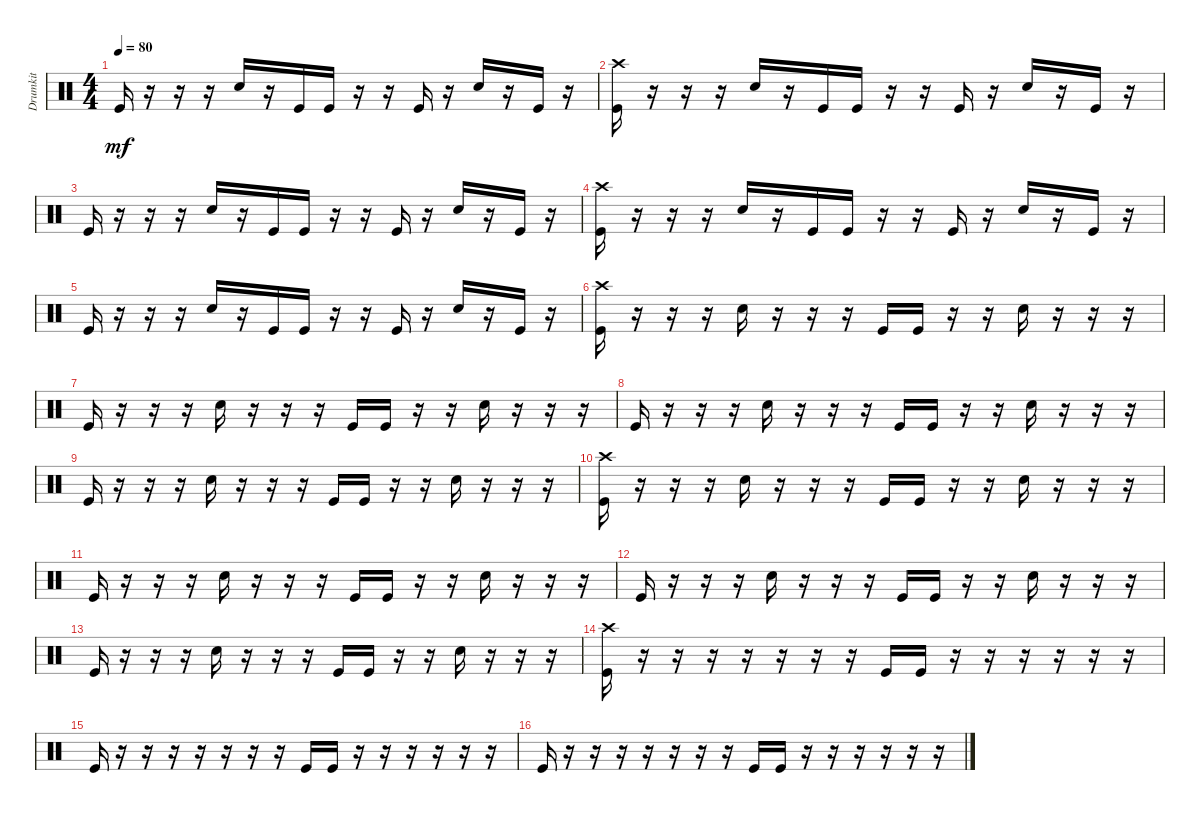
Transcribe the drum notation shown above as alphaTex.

\track ("Drumkit" "Drumkit") {instrument percussion}
\staff {score}
\articulation defaults
\ts (4 4)
\tempo 80
\clef neutral
\ks c "Kick (hit)".16{dy mf}
r.16 r.16 r.16 "Snare (hit) 2".16 r.16 "Kick (hit)".16 "Kick (hit)".16 r.16 r.16 "Kick (hit)".16 r.16 "Snare (hit) 2".16 r.16 "Kick (hit)".16 r.16 |
("Kick (hit)" "Crash high (hit)").16 r.16 r.16 r.16 "Snare (hit) 2".16 r.16 "Kick (hit)".16 "Kick (hit)".16 r.16 r.16 "Kick (hit)".16 r.16 "Snare (hit) 2".16 r.16 "Kick (hit)".16 r.16 |
"Kick (hit)".16 r.16 r.16 r.16 "Snare (hit) 2".16 r.16 "Kick (hit)".16 "Kick (hit)".16 r.16 r.16 "Kick (hit)".16 r.16 "Snare (hit) 2".16 r.16 "Kick (hit)".16 r.16 |
("Kick (hit)" "Crash high (hit)").16 r.16 r.16 r.16 "Snare (hit) 2".16 r.16 "Kick (hit)".16 "Kick (hit)".16 r.16 r.16 "Kick (hit)".16 r.16 "Snare (hit) 2".16 r.16 "Kick (hit)".16 r.16 |
"Kick (hit)".16 r.16 r.16 r.16 "Snare (hit) 2".16 r.16 "Kick (hit)".16 "Kick (hit)".16 r.16 r.16 "Kick (hit)".16 r.16 "Snare (hit) 2".16 r.16 "Kick (hit)".16 r.16 |
("Kick (hit)" "Crash high (hit)").16 r.16 r.16 r.16 "Snare (hit) 2".16 r.16 r.16 r.16 "Kick (hit)".16 "Kick (hit)".16 r.16 r.16 "Snare (hit) 2".16 r.16 r.16 r.16 |
"Kick (hit)".16 r.16 r.16 r.16 "Snare (hit) 2".16 r.16 r.16 r.16 "Kick (hit)".16 "Kick (hit)".16 r.16 r.16 "Snare (hit) 2".16 r.16 r.16 r.16 |
"Kick (hit)".16 r.16 r.16 r.16 "Snare (hit) 2".16 r.16 r.16 r.16 "Kick (hit)".16 "Kick (hit)".16 r.16 r.16 "Snare (hit) 2".16 r.16 r.16 r.16 |
"Kick (hit)".16 r.16 r.16 r.16 "Snare (hit) 2".16 r.16 r.16 r.16 "Kick (hit)".16 "Kick (hit)".16 r.16 r.16 "Snare (hit) 2".16 r.16 r.16 r.16 |
("Kick (hit)" "Crash high (hit)").16 r.16 r.16 r.16 "Snare (hit) 2".16 r.16 r.16 r.16 "Kick (hit)".16 "Kick (hit)".16 r.16 r.16 "Snare (hit) 2".16 r.16 r.16 r.16 |
"Kick (hit)".16 r.16 r.16 r.16 "Snare (hit) 2".16 r.16 r.16 r.16 "Kick (hit)".16 "Kick (hit)".16 r.16 r.16 "Snare (hit) 2".16 r.16 r.16 r.16 |
"Kick (hit)".16 r.16 r.16 r.16 "Snare (hit) 2".16 r.16 r.16 r.16 "Kick (hit)".16 "Kick (hit)".16 r.16 r.16 "Snare (hit) 2".16 r.16 r.16 r.16 |
"Kick (hit)".16 r.16 r.16 r.16 "Snare (hit) 2".16 r.16 r.16 r.16 "Kick (hit)".16 "Kick (hit)".16 r.16 r.16 "Snare (hit) 2".16 r.16 r.16 r.16 |
("Kick (hit)" "Crash high (hit)").16 r.16 r.16 r.16 r.16 r.16 r.16 r.16 "Kick (hit)".16 "Kick (hit)".16 r.16 r.16 r.16 r.16 r.16 r.16 |
"Kick (hit)".16 r.16 r.16 r.16 r.16 r.16 r.16 r.16 "Kick (hit)".16 "Kick (hit)".16 r.16 r.16 r.16 r.16 r.16 r.16 |
"Kick (hit)".16 r.16 r.16 r.16 r.16 r.16 r.16 r.16 "Kick (hit)".16 "Kick (hit)".16 r.16 r.16 r.16 r.16 r.16 r.16
